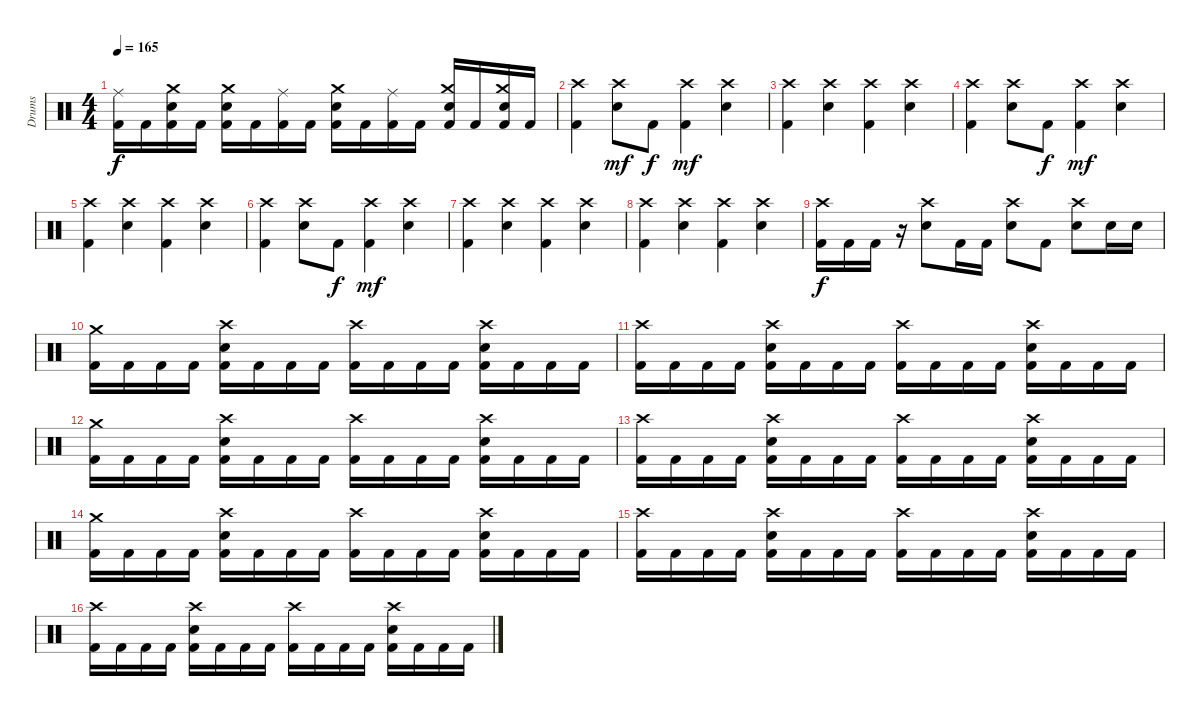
\track ("Drums" "Drums") {instrument percussion}
\staff {score}
\articulation defaults
\ts (4 4)
\tempo 165
\clef neutral
\ks c
("Ride (middle)" "Kick (hit) 2").16{dy f} "Kick (hit) 2".16 ("Crash medium (hit)" "Electric Snare (hit)" "Kick (hit) 2").16 "Kick (hit) 2".16 ("Crash medium (hit)" "Electric Snare (hit)" "Kick (hit) 2").16 "Kick (hit) 2".16 ("Ride (middle)" "Kick (hit) 2").16 "Kick (hit) 2".16 ("Crash medium (hit)" "Electric Snare (hit)" "Kick (hit) 2").16 "Kick (hit) 2".16 ("Ride (middle)" "Kick (hit) 2").16 "Kick (hit) 2".16 ("Crash medium (hit)" "Electric Snare (hit)" "Kick (hit) 2").16 "Kick (hit) 2".16 ("Crash medium (hit)" "Electric Snare (hit)" "Kick (hit) 2").16 "Kick (hit) 2".16 |
("Crash high (hit)" "Kick (hit) 2").4 ("Crash high (hit)" "Electric Snare (hit)").8{dy mf} "Kick (hit) 2".8{dy f} ("Crash high (hit)" "Kick (hit) 2").4{dy mf} ("Crash high (hit)" "Electric Snare (hit)").4 |
("Crash high (hit)" "Kick (hit) 2").4 ("Crash high (hit)" "Electric Snare (hit)").4 ("Crash high (hit)" "Kick (hit) 2").4 ("Crash high (hit)" "Electric Snare (hit)").4 |
("Crash high (hit)" "Kick (hit) 2").4 ("Crash high (hit)" "Electric Snare (hit)").8 "Kick (hit) 2".8{dy f} ("Crash high (hit)" "Kick (hit) 2").4{dy mf} ("Crash high (hit)" "Electric Snare (hit)").4 |
("Crash high (hit)" "Kick (hit) 2").4 ("Crash high (hit)" "Electric Snare (hit)").4 ("Crash high (hit)" "Kick (hit) 2").4 ("Crash high (hit)" "Electric Snare (hit)").4 |
("Crash high (hit)" "Kick (hit) 2").4 ("Crash high (hit)" "Electric Snare (hit)").8 "Kick (hit) 2".8{dy f} ("Crash high (hit)" "Kick (hit) 2").4{dy mf} ("Crash high (hit)" "Electric Snare (hit)").4 |
("Crash high (hit)" "Kick (hit) 2").4 ("Crash high (hit)" "Electric Snare (hit)").4 ("Crash high (hit)" "Kick (hit) 2").4 ("Crash high (hit)" "Electric Snare (hit)").4 |
("Crash high (hit)" "Kick (hit) 2").4 ("Crash high (hit)" "Electric Snare (hit)").4 ("Crash high (hit)" "Kick (hit) 2").4 ("Crash high (hit)" "Electric Snare (hit)").4 |
("Crash high (hit)" "Kick (hit) 2").16{dy f} "Kick (hit) 2".16 "Kick (hit) 2".16 r.16 ("Crash high (hit)" "Electric Snare (hit)").8 "Kick (hit) 2".16 "Kick (hit) 2".16 ("Crash high (hit)" "Electric Snare (hit)").8 "Kick (hit) 2".8 ("Crash high (hit)" "Electric Snare (hit)").8 "Electric Snare (hit)".16 "Electric Snare (hit)".16 |
("Crash medium (hit)" "Kick (hit) 2").16 "Kick (hit) 2".16 "Kick (hit) 2".16 "Kick (hit) 2".16 ("Crash high (hit)" "Electric Snare (hit)" "Kick (hit) 2").16 "Kick (hit) 2".16 "Kick (hit) 2".16 "Kick (hit) 2".16 ("Crash high (hit)" "Kick (hit) 2").16 "Kick (hit) 2".16 "Kick (hit) 2".16 "Kick (hit) 2".16 ("Crash high (hit)" "Electric Snare (hit)" "Kick (hit) 2").16 "Kick (hit) 2".16 "Kick (hit) 2".16 "Kick (hit) 2".16 |
("Crash high (hit)" "Kick (hit) 2").16 "Kick (hit) 2".16 "Kick (hit) 2".16 "Kick (hit) 2".16 ("Crash high (hit)" "Electric Snare (hit)" "Kick (hit) 2").16 "Kick (hit) 2".16 "Kick (hit) 2".16 "Kick (hit) 2".16 ("Crash high (hit)" "Kick (hit) 2").16 "Kick (hit) 2".16 "Kick (hit) 2".16 "Kick (hit) 2".16 ("Crash high (hit)" "Electric Snare (hit)" "Kick (hit) 2").16 "Kick (hit) 2".16 "Kick (hit) 2".16 "Kick (hit) 2".16 |
("Crash medium (hit)" "Kick (hit) 2").16 "Kick (hit) 2".16 "Kick (hit) 2".16 "Kick (hit) 2".16 ("Crash high (hit)" "Electric Snare (hit)" "Kick (hit) 2").16 "Kick (hit) 2".16 "Kick (hit) 2".16 "Kick (hit) 2".16 ("Crash high (hit)" "Kick (hit) 2").16 "Kick (hit) 2".16 "Kick (hit) 2".16 "Kick (hit) 2".16 ("Crash high (hit)" "Electric Snare (hit)" "Kick (hit) 2").16 "Kick (hit) 2".16 "Kick (hit) 2".16 "Kick (hit) 2".16 |
("Crash high (hit)" "Kick (hit) 2").16 "Kick (hit) 2".16 "Kick (hit) 2".16 "Kick (hit) 2".16 ("Crash high (hit)" "Electric Snare (hit)" "Kick (hit) 2").16 "Kick (hit) 2".16 "Kick (hit) 2".16 "Kick (hit) 2".16 ("Crash high (hit)" "Kick (hit) 2").16 "Kick (hit) 2".16 "Kick (hit) 2".16 "Kick (hit) 2".16 ("Crash high (hit)" "Electric Snare (hit)" "Kick (hit) 2").16 "Kick (hit) 2".16 "Kick (hit) 2".16 "Kick (hit) 2".16 |
("Crash medium (hit)" "Kick (hit) 2").16 "Kick (hit) 2".16 "Kick (hit) 2".16 "Kick (hit) 2".16 ("Crash high (hit)" "Electric Snare (hit)" "Kick (hit) 2").16 "Kick (hit) 2".16 "Kick (hit) 2".16 "Kick (hit) 2".16 ("Crash high (hit)" "Kick (hit) 2").16 "Kick (hit) 2".16 "Kick (hit) 2".16 "Kick (hit) 2".16 ("Crash high (hit)" "Electric Snare (hit)" "Kick (hit) 2").16 "Kick (hit) 2".16 "Kick (hit) 2".16 "Kick (hit) 2".16 |
("Crash high (hit)" "Kick (hit) 2").16 "Kick (hit) 2".16 "Kick (hit) 2".16 "Kick (hit) 2".16 ("Crash high (hit)" "Electric Snare (hit)" "Kick (hit) 2").16 "Kick (hit) 2".16 "Kick (hit) 2".16 "Kick (hit) 2".16 ("Crash high (hit)" "Kick (hit) 2").16 "Kick (hit) 2".16 "Kick (hit) 2".16 "Kick (hit) 2".16 ("Crash high (hit)" "Electric Snare (hit)" "Kick (hit) 2").16 "Kick (hit) 2".16 "Kick (hit) 2".16 "Kick (hit) 2".16 |
("Crash high (hit)" "Kick (hit) 2").16 "Kick (hit) 2".16 "Kick (hit) 2".16 "Kick (hit) 2".16 ("Crash high (hit)" "Electric Snare (hit)" "Kick (hit) 2").16 "Kick (hit) 2".16 "Kick (hit) 2".16 "Kick (hit) 2".16 ("Crash high (hit)" "Kick (hit) 2").16 "Kick (hit) 2".16 "Kick (hit) 2".16 "Kick (hit) 2".16 ("Crash high (hit)" "Electric Snare (hit)" "Kick (hit) 2").16 "Kick (hit) 2".16 "Kick (hit) 2".16 "Kick (hit) 2".16
